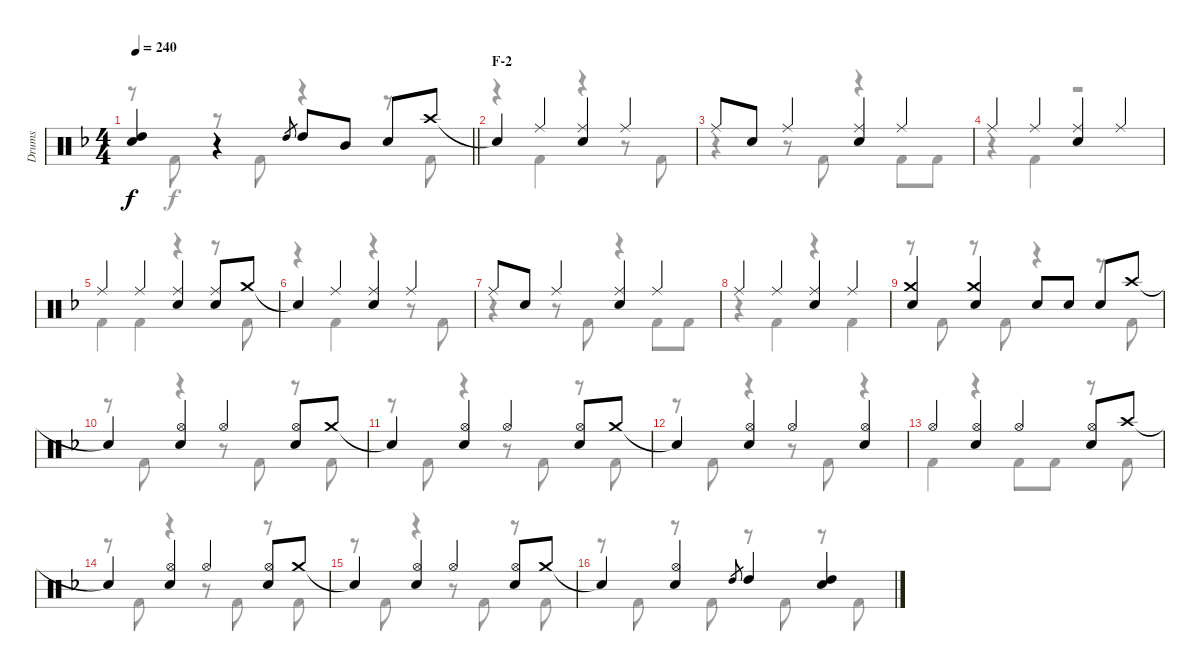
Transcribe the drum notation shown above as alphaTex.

\track ("Drums" "Drums") {instrument percussion}
\staff {score}
\articulation defaults
\voice
\ts (4 4)
\tempo 240
\clef neutral
\barLineRight lightlight
\ks f
("High Tom (hit)" "Snare (hit) 2").4{dy f} r.4 "High Tom (hit)".8{gr} "High Tom (hit)".8 "Mid Tom (hit)".8 "Snare (hit) 2".8 "Crash high (hit)".8 |
\section ("" "F-2")
"Snare (hit)"{t}.4 "Ride (middle)".4 ("Ride (middle)" "Snare (hit) 2").4 "Ride (middle)".4 |
"Ride (middle)".8 "Snare (hit) 2".8 "Ride (middle)".4 ("Ride (middle)" "Snare (hit) 2").4 "Ride (middle)".4 |
"Ride (middle)".4 "Ride (middle)".4 ("Ride (middle)" "Snare (hit) 2").4 "Ride (middle)".4 |
"Ride (middle)".4 "Ride (middle)".4 ("Ride (middle)" "Snare (hit) 2").4 ("Ride (middle)" "Snare (hit) 2").8 "Crash medium (hit)".8 |
"Snare (hit)"{t}.4 "Ride (middle)".4 ("Ride (middle)" "Snare (hit) 2").4 "Ride (middle)".4 |
"Ride (middle)".8 "Snare (hit) 2".8 "Ride (middle)".4 ("Ride (middle)" "Snare (hit) 2").4 "Ride (middle)".4 |
"Ride (middle)".4 "Ride (middle)".4 ("Ride (middle)" "Snare (hit) 2").4 "Ride (middle)".4 |
("Crash medium (hit)" "Snare (hit) 2").4 ("Crash medium (hit)" "Snare (hit) 2").4 "Snare (hit) 2".8 "Snare (hit) 2".8 "Snare (hit) 2".8 "Crash high (hit)".8 |
"Snare (hit)"{t}.4 ("Hi-Hat (open)" "Snare (hit) 2").4 "Hi-Hat (open)".4 ("Hi-Hat (open)" "Snare (hit) 2").8 "Crash medium (hit)".8 |
"Snare (hit)"{t}.4 ("Hi-Hat (open)" "Snare (hit) 2").4 "Hi-Hat (open)".4 ("Hi-Hat (open)" "Snare (hit) 2").8 "Crash medium (hit)".8 |
"Snare (hit)"{t}.4 ("Hi-Hat (open)" "Snare (hit) 2").4 "Hi-Hat (open)".4 ("Hi-Hat (open)" "Snare (hit) 2").4 |
"Hi-Hat (open)".4 ("Hi-Hat (open)" "Snare (hit) 2").4 "Hi-Hat (open)".4 ("Hi-Hat (open)" "Snare (hit) 2").8 "Crash high (hit)".8 |
"Snare (hit)"{t}.4 ("Hi-Hat (open)" "Snare (hit) 2").4 "Hi-Hat (open)".4 ("Hi-Hat (open)" "Snare (hit) 2").8 "Crash medium (hit)".8 |
"Snare (hit)"{t}.4 ("Hi-Hat (open)" "Snare (hit) 2").4 "Hi-Hat (open)".4 ("Hi-Hat (open)" "Snare (hit) 2").8 "Crash medium (hit)".8 |
"Snare (hit)"{t}.4 ("Hi-Hat (open)" "Snare (hit) 2").4 "High Tom (hit)".8{gr} "High Tom (hit)".4 ("High Tom (hit)" "Snare (hit) 2").4
\voice
\clef neutral
\ottava regular
\simile none
\barLineRight lightlight
\ks f
r.8{dy f} "Kick (hit) 2".8 r.8 "Kick (hit) 2".8 r.4 r.8 "Kick (hit) 2".8 |
r.4 "Kick (hit) 2".4 r.4 r.8 "Kick (hit) 2".8 |
r.4 r.8 "Kick (hit) 2".8 r.4 "Kick (hit) 2".8 "Kick (hit) 2".8 |
r.4 "Kick (hit) 2".4 r.2 |
"Kick (hit) 2".4 "Kick (hit) 2".4 r.4 r.8 "Kick (hit) 2".8 |
r.4 "Kick (hit) 2".4 r.4 r.8 "Kick (hit) 2".8 |
r.4 r.8 "Kick (hit) 2".8 r.4 "Kick (hit) 2".8 "Kick (hit) 2".8 |
r.4 "Kick (hit) 2".4 r.4 "Kick (hit) 2".4 |
r.8 "Kick (hit) 2".8 r.8 "Kick (hit) 2".8 r.4 r.8 "Kick (hit) 2".8 |
r.8 "Kick (hit) 2".8 r.4 r.8 "Kick (hit) 2".8 r.8 "Kick (hit) 2".8 |
r.8 "Kick (hit) 2".8 r.4 r.8 "Kick (hit) 2".8 r.8 "Kick (hit) 2".8 |
r.8 "Kick (hit) 2".8 r.4 r.8 "Kick (hit) 2".8 r.4 |
"Kick (hit) 2".4 r.4 "Kick (hit) 2".8 "Kick (hit) 2".8 r.8 "Kick (hit) 2".8 |
r.8 "Kick (hit) 2".8 r.4 r.8 "Kick (hit) 2".8 r.8 "Kick (hit) 2".8 |
r.8 "Kick (hit) 2".8 r.4 r.8 "Kick (hit) 2".8 r.8 "Kick (hit) 2".8 |
r.8 "Kick (hit) 2".8 r.8 "Kick (hit) 2".8 r.8 "Kick (hit) 2".8 r.8 "Kick (hit) 2".8
